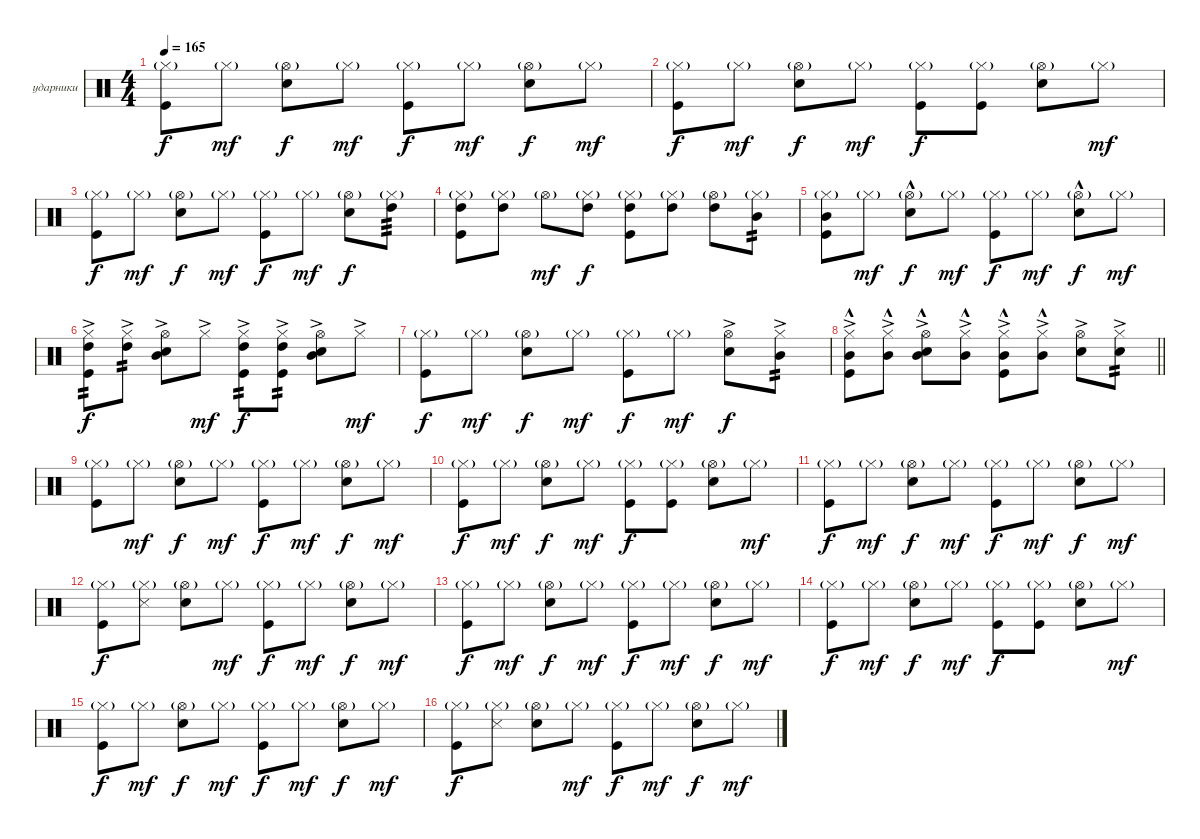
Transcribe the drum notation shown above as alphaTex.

\bracketExtendMode groupsimilarinstruments
\firstSystemTrackNameOrientation horizontal
\otherSystemsTrackNameOrientation horizontal
\track ("Георгий Гурьянов" "ударники") {instrument percussion}
\staff {score}
\articulation defaults
\ts (4 4)
\tempo 165
\clef neutral
\scale
0.333333
\ks c
("Hi-Hat (closed)"{g} "Kick (hit)").8{dy f} "Hi-Hat (closed)"{g}.8{dy mf} ("Hi-Hat (open)"{g} "Snare (hit) 2").8{dy f} "Hi-Hat (closed)"{g}.8{dy mf} ("Hi-Hat (closed)"{g} "Kick (hit)").8{dy f} "Hi-Hat (closed)"{g}.8{dy mf} ("Hi-Hat (open)"{g} "Snare (hit) 2").8{dy f} "Hi-Hat (closed)"{g}.8{dy mf} |
\scale
0.333333 ("Hi-Hat (closed)"{g} "Kick (hit)").8{dy f} "Hi-Hat (closed)"{g}.8{dy mf} ("Hi-Hat (open)"{g} "Snare (hit) 2").8{dy f} "Hi-Hat (closed)"{g}.8{dy mf} ("Hi-Hat (closed)"{g} "Kick (hit)").8{dy f} ("Hi-Hat (closed)"{g} "Kick (hit)").8 ("Hi-Hat (open)"{g} "Snare (hit) 2").8 "Hi-Hat (closed)"{g}.8{dy mf} |
\scale
0.333333 ("Hi-Hat (closed)"{g} "Kick (hit)").8{dy f} "Hi-Hat (closed)"{g}.8{dy mf} ("Hi-Hat (open)"{g} "Snare (hit) 2").8{dy f} "Hi-Hat (closed)"{g}.8{dy mf} ("Hi-Hat (closed)"{g} "Kick (hit)").8{dy f} "Hi-Hat (closed)"{g}.8{dy mf} ("Hi-Hat (open)"{g} "Snare (hit) 2").8{dy f} ("Hi-Hat (closed)"{g} "High Tom (hit)").8{tp 3} |
\scale
0.333333 ("Hi-Hat (closed)"{g} "High Tom (hit)" "Kick (hit)").8 ("Hi-Hat (closed)"{g} "High Tom (hit)").8 "Hi-Hat (open)"{g}.8{dy mf} ("Hi-Hat (closed)"{g} "High Tom (hit)").8{dy f} ("Hi-Hat (closed)"{g} "High Tom (hit)" "Kick (hit)").8 ("Hi-Hat (closed)"{g} "High Tom (hit)").8 ("Hi-Hat (open)"{g} "High Tom (hit)").8 ("Hi-Hat (closed)"{g} "Mid Tom (hit)").8{tp 2} |
\scale
0.333333 ("Hi-Hat (closed)"{g} "Mid Tom (hit)" "Kick (hit)").8 "Hi-Hat (closed)"{g}.8{dy mf} ("Hi-Hat (open)"{g} "Snare (hit) 2"{hac}).8{dy f} "Hi-Hat (closed)"{g}.8{dy mf} ("Hi-Hat (closed)"{g} "Kick (hit)").8{dy f} "Hi-Hat (closed)"{g}.8{dy mf} ("Hi-Hat (open)"{g} "Snare (hit) 2"{hac}).8{dy f} "Hi-Hat (closed)"{g}.8{dy mf} |
\scale
0.333333 ("Hi-Hat (closed)"{ac} "High Tom (hit)"{ac} "Kick (hit)"{ac}).8{tp 2 dy f} ("Hi-Hat (closed)"{ac} "High Tom (hit)"{ac}).8{tp 2} ("Hi-Hat (open)"{ac} "Mid Tom (hit)"{ac} "Snare (hit) 2"{ac}).8 "Hi-Hat (closed)"{ac}.8{dy mf} ("Hi-Hat (closed)"{ac} "High Tom (hit)"{ac} "Kick (hit)"{ac}).8{tp 2 dy f} ("Hi-Hat (closed)"{ac} "High Tom (hit)"{ac} "Kick (hit)"{ac}).8{tp 2} ("Hi-Hat (open)"{ac} "Mid Tom (hit)"{ac} "Snare (hit) 2"{ac}).8 "Hi-Hat (closed)"{ac}.8{dy mf} |
\scale
0.333333 ("Hi-Hat (closed)"{g} "Kick (hit)").8{dy f} "Hi-Hat (closed)"{g}.8{dy mf} ("Hi-Hat (open)"{g} "Snare (hit) 2").8{dy f} "Hi-Hat (closed)"{g}.8{dy mf} ("Hi-Hat (closed)"{g} "Kick (hit)").8{dy f} "Hi-Hat (closed)"{g}.8{dy mf} ("Hi-Hat (open)"{ac} "Snare (hit) 2"{ac}).8{dy f} ("Hi-Hat (closed)"{ac} "Mid Tom (hit)"{ac}).8{tp 2} |
\scale
0.333333
\barLineRight lightlight
("Hi-Hat (closed)"{ac} "Mid Tom (hit)"{hac} "Kick (hit)"{ac}).8 ("Hi-Hat (closed)"{ac} "Mid Tom (hit)"{hac}).8 ("Hi-Hat (open)"{ac} "Mid Tom (hit)"{hac} "Snare (hit) 2"{ac}).8 ("Hi-Hat (closed)"{ac} "Mid Tom (hit)"{hac}).8 ("Hi-Hat (closed)"{ac} "Mid Tom (hit)"{hac} "Kick (hit)"{ac}).8 ("Hi-Hat (closed)"{ac} "Mid Tom (hit)"{hac}).8 ("Hi-Hat (open)"{ac} "Snare (hit) 2"{ac}).8 ("Hi-Hat (closed)"{ac} "Snare (hit) 2"{ac}).8{tp 2} |
\scale
0.333333 ("Hi-Hat (closed)"{g} "Kick (hit)").8 "Hi-Hat (closed)"{g}.8{dy mf} ("Hi-Hat (open)"{g} "Snare (hit) 2").8{dy f} "Hi-Hat (closed)"{g}.8{dy mf} ("Hi-Hat (closed)"{g} "Kick (hit)").8{dy f} "Hi-Hat (closed)"{g}.8{dy mf} ("Hi-Hat (open)"{g} "Snare (hit) 2").8{dy f} "Hi-Hat (closed)"{g}.8{dy mf} |
\scale
0.333333 ("Hi-Hat (closed)"{g} "Kick (hit)").8{dy f} "Hi-Hat (closed)"{g}.8{dy mf} ("Hi-Hat (open)"{g} "Snare (hit) 2").8{dy f} "Hi-Hat (closed)"{g}.8{dy mf} ("Hi-Hat (closed)"{g} "Kick (hit)").8{dy f} ("Hi-Hat (closed)"{g} "Kick (hit)").8 ("Hi-Hat (open)"{g} "Snare (hit) 2").8 "Hi-Hat (closed)"{g}.8{dy mf} |
\scale
0.333333 ("Hi-Hat (closed)"{g} "Kick (hit)").8{dy f} "Hi-Hat (closed)"{g}.8{dy mf} ("Hi-Hat (open)"{g} "Snare (hit) 2").8{dy f} "Hi-Hat (closed)"{g}.8{dy mf} ("Hi-Hat (closed)"{g} "Kick (hit)").8{dy f} "Hi-Hat (closed)"{g}.8{dy mf} ("Hi-Hat (open)"{g} "Snare (hit) 2").8{dy f} "Hi-Hat (closed)"{g}.8{dy mf} |
\scale
0.333333 ("Hi-Hat (closed)"{g} "Kick (hit)").8{dy f} ("Hi-Hat (closed)"{g} "Snare (side stick) 3").8 ("Hi-Hat (open)"{g} "Snare (hit) 2").8 "Hi-Hat (closed)"{g}.8{dy mf} ("Hi-Hat (closed)"{g} "Kick (hit)").8{dy f} "Hi-Hat (closed)"{g}.8{dy mf} ("Hi-Hat (open)"{g} "Snare (hit) 2").8{dy f} "Hi-Hat (closed)"{g}.8{dy mf} |
\scale
0.333333 ("Hi-Hat (closed)"{g} "Kick (hit)").8{dy f} "Hi-Hat (closed)"{g}.8{dy mf} ("Hi-Hat (open)"{g} "Snare (hit) 2").8{dy f} "Hi-Hat (closed)"{g}.8{dy mf} ("Hi-Hat (closed)"{g} "Kick (hit)").8{dy f} "Hi-Hat (closed)"{g}.8{dy mf} ("Hi-Hat (open)"{g} "Snare (hit) 2").8{dy f} "Hi-Hat (closed)"{g}.8{dy mf} |
\scale
0.333333 ("Hi-Hat (closed)"{g} "Kick (hit)").8{dy f} "Hi-Hat (closed)"{g}.8{dy mf} ("Hi-Hat (open)"{g} "Snare (hit) 2").8{dy f} "Hi-Hat (closed)"{g}.8{dy mf} ("Hi-Hat (closed)"{g} "Kick (hit)").8{dy f} ("Hi-Hat (closed)"{g} "Kick (hit)").8 ("Hi-Hat (open)"{g} "Snare (hit) 2").8 "Hi-Hat (closed)"{g}.8{dy mf} |
\scale
0.333333 ("Hi-Hat (closed)"{g} "Kick (hit)").8{dy f} "Hi-Hat (closed)"{g}.8{dy mf} ("Hi-Hat (open)"{g} "Snare (hit) 2").8{dy f} "Hi-Hat (closed)"{g}.8{dy mf} ("Hi-Hat (closed)"{g} "Kick (hit)").8{dy f} "Hi-Hat (closed)"{g}.8{dy mf} ("Hi-Hat (open)"{g} "Snare (hit) 2").8{dy f} "Hi-Hat (closed)"{g}.8{dy mf} |
\scale
0.333333 ("Hi-Hat (closed)"{g} "Kick (hit)").8{dy f} ("Hi-Hat (closed)"{g} "Snare (side stick) 3").8 ("Hi-Hat (open)"{g} "Snare (hit) 2").8 "Hi-Hat (closed)"{g}.8{dy mf} ("Hi-Hat (closed)"{g} "Kick (hit)").8{dy f} "Hi-Hat (closed)"{g}.8{dy mf} ("Hi-Hat (open)"{g} "Snare (hit) 2").8{dy f} "Hi-Hat (closed)"{g}.8{dy mf}
